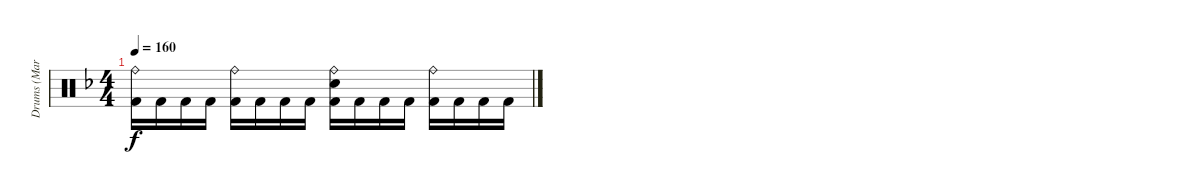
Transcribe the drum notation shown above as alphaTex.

\track ("Drums (Mark)" "Drums (Mar") {instrument percussion}
\staff {score}
\articulation defaults
\ts (4 4)
\tempo 160
\clef neutral
\ks dminor
("Ride (bell)" "Kick (hit) 2").16{dy f} "Kick (hit) 2".16 "Kick (hit) 2".16 "Kick (hit) 2".16 ("Ride (bell)" "Kick (hit) 2").16 "Kick (hit) 2".16 "Kick (hit) 2".16 "Kick (hit) 2".16 ("Ride (bell)" "Snare (hit) 2" "Kick (hit) 2").16 "Kick (hit) 2".16 "Kick (hit) 2".16 "Kick (hit) 2".16 ("Ride (bell)" "Kick (hit) 2").16 "Kick (hit) 2".16 "Kick (hit) 2".16 "Kick (hit) 2".16
